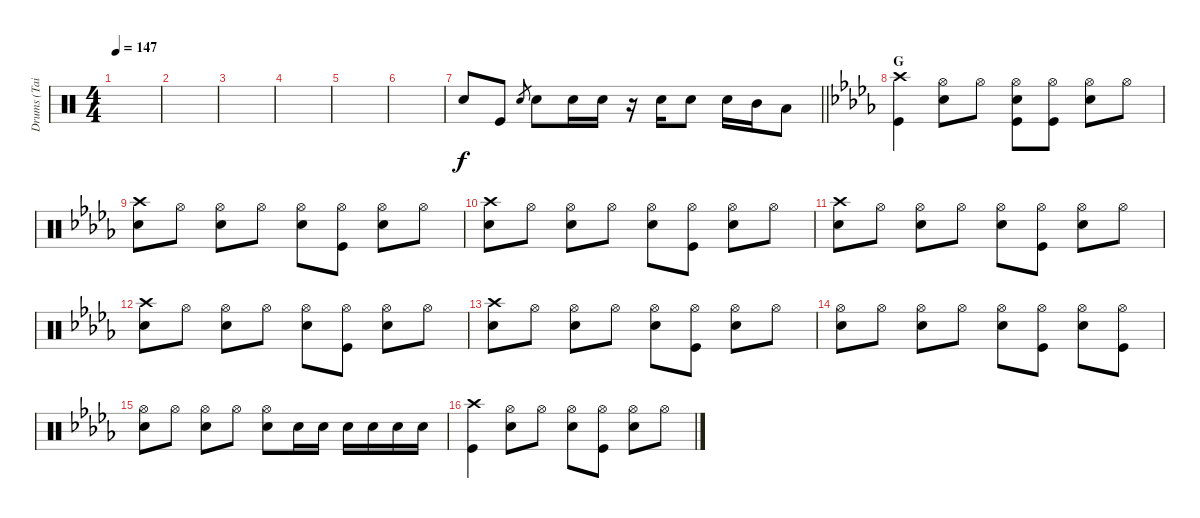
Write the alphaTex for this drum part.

\track ("Drums (Tainaka Ritsu)" "Drums (Tai") {instrument percussion}
\staff {score}
\articulation defaults
\ts (4 4)
\tempo 147
\clef neutral
\ks c
|
|
|
|
|
|
\barLineRight lightlight "Snare (hit) 2".8 "Kick (hit)".8 "Snare (hit) 2".8{gr} "Snare (hit) 2".8 "Snare (hit) 2".16 "Snare (hit) 2".16
r.16 "Snare (hit) 2".16 "Snare (hit) 2".8 "Snare (hit) 2".16 "Mid Tom (hit)".16 "Low Tom (hit)".8 |
\section ("" "G")
\ks db
("Crash high (hit)" "Kick (hit)").4 ("Hi-Hat (open)" "Snare (hit) 2").8 "Hi-Hat (open)".8 ("Hi-Hat (open)" "Snare (hit) 2" "Kick (hit)").8 ("Hi-Hat (open)" "Kick (hit)").8 ("Hi-Hat (open)" "Snare (hit) 2").8 "Hi-Hat (open)".8 |
("Crash high (hit)" "Snare (hit) 2").8 "Hi-Hat (open)".8 ("Hi-Hat (open)" "Snare (hit) 2").8 "Hi-Hat (open)".8 ("Hi-Hat (open)" "Snare (hit) 2").8 ("Hi-Hat (open)" "Kick (hit)").8 ("Hi-Hat (open)" "Snare (hit) 2").8 "Hi-Hat (open)".8 |
("Crash high (hit)" "Snare (hit) 2").8 "Hi-Hat (open)".8 ("Hi-Hat (open)" "Snare (hit) 2").8 "Hi-Hat (open)".8 ("Hi-Hat (open)" "Snare (hit) 2").8 ("Hi-Hat (open)" "Kick (hit)").8 ("Hi-Hat (open)" "Snare (hit) 2").8 "Hi-Hat (open)".8 |
("Crash high (hit)" "Snare (hit) 2").8 "Hi-Hat (open)".8 ("Hi-Hat (open)" "Snare (hit) 2").8 "Hi-Hat (open)".8 ("Hi-Hat (open)" "Snare (hit) 2").8 ("Hi-Hat (open)" "Kick (hit)").8 ("Hi-Hat (open)" "Snare (hit) 2").8 "Hi-Hat (open)".8 |
("Crash high (hit)" "Snare (hit) 2").8 "Hi-Hat (open)".8 ("Hi-Hat (open)" "Snare (hit) 2").8 "Hi-Hat (open)".8 ("Hi-Hat (open)" "Snare (hit) 2").8 ("Hi-Hat (open)" "Kick (hit)").8 ("Hi-Hat (open)" "Snare (hit) 2").8 "Hi-Hat (open)".8 |
("Crash high (hit)" "Snare (hit) 2").8 "Hi-Hat (open)".8 ("Hi-Hat (open)" "Snare (hit) 2").8 "Hi-Hat (open)".8 ("Hi-Hat (open)" "Snare (hit) 2").8 ("Hi-Hat (open)" "Kick (hit)").8 ("Hi-Hat (open)" "Snare (hit) 2").8 "Hi-Hat (open)".8 |
("Hi-Hat (open)" "Snare (hit) 2").8 "Hi-Hat (open)".8 ("Hi-Hat (open)" "Snare (hit) 2").8 "Hi-Hat (open)".8 ("Hi-Hat (open)" "Snare (hit) 2").8 ("Hi-Hat (open)" "Kick (hit)").8 ("Hi-Hat (open)" "Snare (hit) 2").8 ("Hi-Hat (open)" "Kick (hit)").8 |
("Hi-Hat (open)" "Snare (hit) 2").8 "Hi-Hat (open)".8 ("Hi-Hat (open)" "Snare (hit) 2").8 "Hi-Hat (open)".8 ("Hi-Hat (open)" "Snare (hit) 2").8 "Snare (hit) 2".16 "Snare (hit) 2".16 "Snare (hit) 2".16 "Snare (hit) 2".16 "Snare (hit) 2".16 "Snare (hit) 2".16 |
("Crash high (hit)" "Kick (hit)").4 ("Hi-Hat (open)" "Snare (hit) 2").8 "Hi-Hat (open)".8 ("Hi-Hat (open)" "Snare (hit) 2").8 ("Hi-Hat (open)" "Kick (hit)").8 ("Hi-Hat (open)" "Snare (hit) 2").8 "Hi-Hat (open)".8
